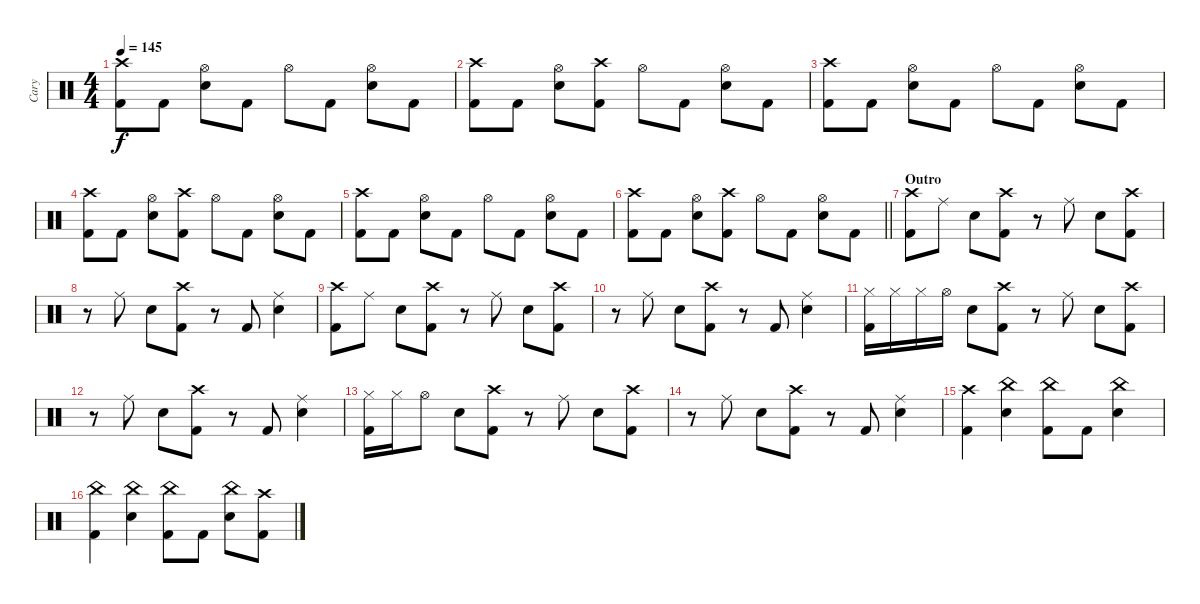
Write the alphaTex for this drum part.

\track ("Cary" "Cary") {instrument percussion}
\staff {score}
\articulation defaults
\ts (4 4)
\tempo 145
\clef neutral
\ks c
("Crash high (hit)" "Kick (hit) 2").8{dy f} "Kick (hit) 2".8 ("Hi-Hat (open)" "Electric Snare (hit)").8 "Kick (hit) 2".8 "Hi-Hat (open)".8 "Kick (hit) 2".8 ("Hi-Hat (open)" "Electric Snare (hit)").8 "Kick (hit) 2".8 |
("Crash high (hit)" "Kick (hit) 2").8 "Kick (hit) 2".8 ("Hi-Hat (open)" "Electric Snare (hit)").8 ("Crash high (hit)" "Kick (hit) 2").8 "Hi-Hat (open)".8 "Kick (hit) 2".8 ("Hi-Hat (open)" "Electric Snare (hit)").8 "Kick (hit) 2".8 |
("Crash high (hit)" "Kick (hit) 2").8 "Kick (hit) 2".8 ("Hi-Hat (open)" "Electric Snare (hit)").8 "Kick (hit) 2".8 "Hi-Hat (open)".8 "Kick (hit) 2".8 ("Hi-Hat (open)" "Electric Snare (hit)").8 "Kick (hit) 2".8 |
("Crash high (hit)" "Kick (hit) 2").8 "Kick (hit) 2".8 ("Hi-Hat (open)" "Electric Snare (hit)").8 ("Crash high (hit)" "Kick (hit) 2").8 "Hi-Hat (open)".8 "Kick (hit) 2".8 ("Hi-Hat (open)" "Electric Snare (hit)").8 "Kick (hit) 2".8 |
("Crash high (hit)" "Kick (hit) 2").8 "Kick (hit) 2".8 ("Hi-Hat (open)" "Electric Snare (hit)").8 "Kick (hit) 2".8 "Hi-Hat (open)".8 "Kick (hit) 2".8 ("Hi-Hat (open)" "Electric Snare (hit)").8 "Kick (hit) 2".8 |
\barLineRight lightlight
("Crash high (hit)" "Kick (hit) 2").8 "Kick (hit) 2".8 ("Hi-Hat (open)" "Electric Snare (hit)").8 ("Crash high (hit)" "Kick (hit) 2").8 "Hi-Hat (open)".8 "Kick (hit) 2".8 ("Hi-Hat (open)" "Electric Snare (hit)").8 "Kick (hit) 2".8 |
\section ("" "Outro")
("Crash high (hit)" "Kick (hit) 2").8 "Ride (middle)".8 "Electric Snare (hit)".8 ("Crash high (hit)" "Kick (hit) 2").8 r.8 "Ride (middle)".8 "Electric Snare (hit)".8 ("Crash high (hit)" "Kick (hit) 2").8 |
r.8 "Ride (middle)".8 "Electric Snare (hit)".8 ("Crash high (hit)" "Kick (hit) 2").8 r.8 "Kick (hit) 2".8 ("Ride (middle)" "Electric Snare (hit)").4 |
("Crash high (hit)" "Kick (hit) 2").8 "Ride (middle)".8 "Electric Snare (hit)".8 ("Crash high (hit)" "Kick (hit) 2").8 r.8 "Ride (middle)".8 "Electric Snare (hit)".8 ("Crash high (hit)" "Kick (hit) 2").8 |
r.8 "Ride (middle)".8 "Electric Snare (hit)".8 ("Crash high (hit)" "Kick (hit) 2").8 r.8 "Kick (hit) 2".8 ("Ride (middle)" "Electric Snare (hit)").4 |
("Hi-Hat (closed)" "Kick (hit) 2").16 "Hi-Hat (closed)".16 "Hi-Hat (closed)".16 "Hi-Hat (open)".16 "Electric Snare (hit)".8 ("Crash high (hit)" "Kick (hit) 2").8 r.8 "Ride (middle)".8 "Electric Snare (hit)".8 ("Crash high (hit)" "Kick (hit) 2").8 |
r.8 "Ride (middle)".8 "Electric Snare (hit)".8 ("Crash high (hit)" "Kick (hit) 2").8 r.8 "Kick (hit) 2".8 ("Ride (middle)" "Electric Snare (hit)").4 |
("Hi-Hat (closed)" "Kick (hit) 2").16 "Hi-Hat (closed)".16 "Hi-Hat (open)".8 "Electric Snare (hit)".8 ("Crash high (hit)" "Kick (hit) 2").8 r.8 "Ride (middle)".8 "Electric Snare (hit)".8 ("Crash high (hit)" "Kick (hit) 2").8 |
r.8 "Ride (middle)".8 "Electric Snare (hit)".8 ("Crash high (hit)" "Kick (hit) 2").8 r.8 "Kick (hit) 2".8 ("Ride (middle)" "Electric Snare (hit)").4 |
("Crash high (hit)" "Kick (hit) 2").4 ("China (hit)" "Electric Snare (hit)").4 ("China (hit)" "Kick (hit) 2").8 "Kick (hit) 2".8 ("China (hit)" "Electric Snare (hit)").4 |
("China (hit)" "Kick (hit) 2").4 ("China (hit)" "Electric Snare (hit)").4 ("China (hit)" "Kick (hit) 2").8 "Kick (hit) 2".8 ("China (hit)" "Electric Snare (hit)").8 ("Crash high (hit)" "Kick (hit) 2").8
